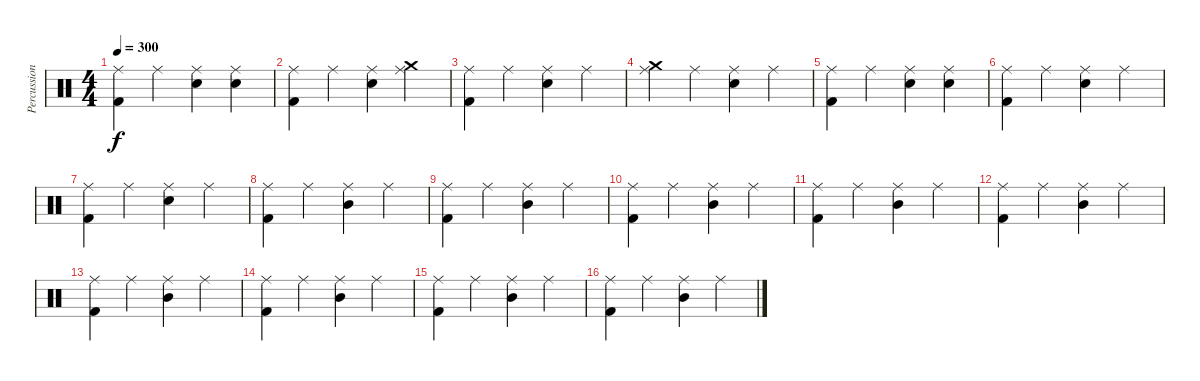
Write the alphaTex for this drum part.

\track ("Percussion" "Percussion") {instrument percussion}
\staff {score}
\articulation defaults
\ts (4 4)
\tempo 300
\clef neutral
\ks c
("Kick (hit) 2" "Ride (middle)").4{dy f} "Ride (middle)".4 ("Electric Snare (hit)" "Ride (middle)").4 ("Electric Snare (hit)" "Ride (middle)").4 |
("Kick (hit) 2" "Ride (middle)").4 "Ride (middle)".4 ("Electric Snare (hit)" "Ride (middle)").4 ("Crash medium (hit)" "Ride (middle)").4 |
("Kick (hit) 2" "Ride (middle)").4 "Ride (middle)".4 ("Electric Snare (hit)" "Ride (middle)").4 "Ride (middle)".4 |
("Crash medium (hit)" "Ride (middle)").4 "Ride (middle)".4 ("Electric Snare (hit)" "Ride (middle)").4 "Ride (middle)".4 |
("Kick (hit) 2" "Ride (middle)").4 "Ride (middle)".4 ("Electric Snare (hit)" "Ride (middle)").4 ("Electric Snare (hit)" "Ride (middle)").4 |
("Kick (hit) 2" "Ride (middle)").4 "Ride (middle)".4 ("Electric Snare (hit)" "Ride (middle)").4 "Ride (middle)".4 |
("Kick (hit) 2" "Ride (middle)").4 "Ride (middle)".4 ("Electric Snare (hit)" "Ride (middle)").4 "Ride (middle)".4 |
("Kick (hit) 2" "Ride (middle)").4 "Ride (middle)".4 ("Mid Tom (hit)" "Ride (middle)").4 "Ride (middle)".4 |
("Kick (hit) 2" "Ride (middle)").4 "Ride (middle)".4 ("Mid Tom (hit)" "Ride (middle)").4 "Ride (middle)".4 |
("Kick (hit) 2" "Ride (middle)").4 "Ride (middle)".4 ("Mid Tom (hit)" "Ride (middle)").4 "Ride (middle)".4 |
("Kick (hit) 2" "Ride (middle)").4 "Ride (middle)".4 ("Mid Tom (hit)" "Ride (middle)").4 "Ride (middle)".4 |
("Kick (hit) 2" "Ride (middle)").4 "Ride (middle)".4 ("Mid Tom (hit)" "Ride (middle)").4 "Ride (middle)".4 |
("Kick (hit) 2" "Ride (middle)").4 "Ride (middle)".4 ("Mid Tom (hit)" "Ride (middle)").4 "Ride (middle)".4 |
("Kick (hit) 2" "Ride (middle)").4 "Ride (middle)".4 ("Mid Tom (hit)" "Ride (middle)").4 "Ride (middle)".4 |
("Kick (hit) 2" "Ride (middle)").4 "Ride (middle)".4 ("Mid Tom (hit)" "Ride (middle)").4 "Ride (middle)".4 |
("Kick (hit) 2" "Ride (middle)").4 "Ride (middle)".4 ("Mid Tom (hit)" "Ride (middle)").4 "Ride (middle)".4
